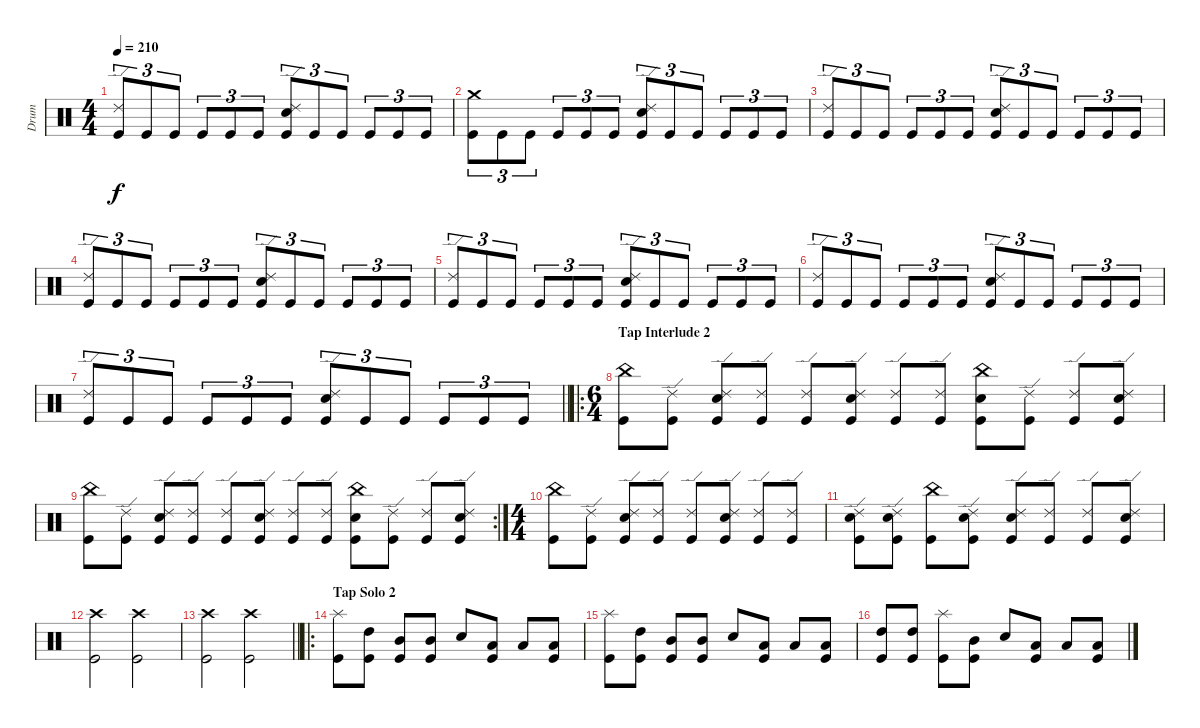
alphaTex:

\track ("Drum" "Drum") {instrument percussion}
\staff {score}
\articulation defaults
\ts (4 4)
\tempo 210
\clef neutral
\ks c
("Ride (edge) 2" "Kick (hit)").8{tu (3 2) dy f} "Kick (hit)".8{tu (3 2)} "Kick (hit)".8{tu (3 2)} "Kick (hit)".8{tu (3 2)} "Kick (hit)".8{tu (3 2)} "Kick (hit)".8{tu (3 2)} ("Ride (edge) 2" "Snare (hit) 2" "Kick (hit)").8{tu (3 2)} "Kick (hit)".8{tu (3 2)} "Kick (hit)".8{tu (3 2)} "Kick (hit)".8{tu (3 2)} "Kick (hit)".8{tu (3 2)} "Kick (hit)".8{tu (3 2)} |
("Crash medium (hit)" "Kick (hit)").8{tu (3 2)} "Kick (hit)".8{tu (3 2)} "Kick (hit)".8{tu (3 2)} "Kick (hit)".8{tu (3 2)} "Kick (hit)".8{tu (3 2)} "Kick (hit)".8{tu (3 2)} ("Ride (edge) 2" "Snare (hit) 2" "Kick (hit)").8{tu (3 2)} "Kick (hit)".8{tu (3 2)} "Kick (hit)".8{tu (3 2)} "Kick (hit)".8{tu (3 2)} "Kick (hit)".8{tu (3 2)} "Kick (hit)".8{tu (3 2)} |
("Ride (edge) 2" "Kick (hit)").8{tu (3 2)} "Kick (hit)".8{tu (3 2)} "Kick (hit)".8{tu (3 2)} "Kick (hit)".8{tu (3 2)} "Kick (hit)".8{tu (3 2)} "Kick (hit)".8{tu (3 2)} ("Ride (edge) 2" "Snare (hit) 2" "Kick (hit)").8{tu (3 2)} "Kick (hit)".8{tu (3 2)} "Kick (hit)".8{tu (3 2)} "Kick (hit)".8{tu (3 2)} "Kick (hit)".8{tu (3 2)} "Kick (hit)".8{tu (3 2)} |
("Ride (edge) 2" "Kick (hit)").8{tu (3 2)} "Kick (hit)".8{tu (3 2)} "Kick (hit)".8{tu (3 2)} "Kick (hit)".8{tu (3 2)} "Kick (hit)".8{tu (3 2)} "Kick (hit)".8{tu (3 2)} ("Ride (edge) 2" "Snare (hit) 2" "Kick (hit)").8{tu (3 2)} "Kick (hit)".8{tu (3 2)} "Kick (hit)".8{tu (3 2)} "Kick (hit)".8{tu (3 2)} "Kick (hit)".8{tu (3 2)} "Kick (hit)".8{tu (3 2)} |
("Ride (edge) 2" "Kick (hit)").8{tu (3 2)} "Kick (hit)".8{tu (3 2)} "Kick (hit)".8{tu (3 2)} "Kick (hit)".8{tu (3 2)} "Kick (hit)".8{tu (3 2)} "Kick (hit)".8{tu (3 2)} ("Ride (edge) 2" "Snare (hit) 2" "Kick (hit)").8{tu (3 2)} "Kick (hit)".8{tu (3 2)} "Kick (hit)".8{tu (3 2)} "Kick (hit)".8{tu (3 2)} "Kick (hit)".8{tu (3 2)} "Kick (hit)".8{tu (3 2)} |
("Ride (edge) 2" "Kick (hit)").8{tu (3 2)} "Kick (hit)".8{tu (3 2)} "Kick (hit)".8{tu (3 2)} "Kick (hit)".8{tu (3 2)} "Kick (hit)".8{tu (3 2)} "Kick (hit)".8{tu (3 2)} ("Ride (edge) 2" "Snare (hit) 2" "Kick (hit)").8{tu (3 2)} "Kick (hit)".8{tu (3 2)} "Kick (hit)".8{tu (3 2)} "Kick (hit)".8{tu (3 2)} "Kick (hit)".8{tu (3 2)} "Kick (hit)".8{tu (3 2)} |
\barLineRight lightlight
("Ride (edge) 2" "Kick (hit)").8{tu (3 2)} "Kick (hit)".8{tu (3 2)} "Kick (hit)".8{tu (3 2)} "Kick (hit)".8{tu (3 2)} "Kick (hit)".8{tu (3 2)} "Kick (hit)".8{tu (3 2)} ("Ride (edge) 2" "Snare (hit) 2" "Kick (hit)").8{tu (3 2)} "Kick (hit)".8{tu (3 2)} "Kick (hit)".8{tu (3 2)} "Kick (hit)".8{tu (3 2)} "Kick (hit)".8{tu (3 2)} "Kick (hit)".8{tu (3 2)} |
\ro
\ts (6 4)
\section ("" "Tap Interlude 2")
("China (hit)" "Kick (hit)").8 ("Ride (edge) 2" "Kick (hit)").8 ("Ride (edge) 2" "Snare (hit) 2" "Kick (hit)").8 ("Ride (edge) 2" "Kick (hit)").8 ("Ride (edge) 2" "Kick (hit)").8 ("Ride (edge) 2" "Snare (hit) 2" "Kick (hit)").8 ("Ride (edge) 2" "Kick (hit)").8 ("Ride (edge) 2" "Kick (hit)").8 ("China (hit)" "Snare (hit) 2" "Kick (hit)").8 ("Ride (edge) 2" "Kick (hit)").8 ("Ride (edge) 2" "Kick (hit)").8 ("Ride (edge) 2" "Snare (hit) 2" "Kick (hit)").8 |
\rc 2
("China (hit)" "Kick (hit)").8 ("Ride (edge) 2" "Kick (hit)").8 ("Ride (edge) 2" "Snare (hit) 2" "Kick (hit)").8 ("Ride (edge) 2" "Kick (hit)").8 ("Ride (edge) 2" "Kick (hit)").8 ("Ride (edge) 2" "Snare (hit) 2" "Kick (hit)").8 ("Ride (edge) 2" "Kick (hit)").8 ("Ride (edge) 2" "Kick (hit)").8 ("China (hit)" "Snare (hit) 2" "Kick (hit)").8 ("Ride (edge) 2" "Kick (hit)").8 ("Ride (edge) 2" "Kick (hit)").8 ("Ride (edge) 2" "Snare (hit) 2" "Kick (hit)").8 |
\ts (4 4)
("China (hit)" "Kick (hit)").8 ("Ride (edge) 2" "Kick (hit)").8 ("Ride (edge) 2" "Snare (hit) 2" "Kick (hit)").8 ("Ride (edge) 2" "Kick (hit)").8 ("Ride (edge) 2" "Kick (hit)").8 ("Ride (edge) 2" "Snare (hit) 2" "Kick (hit)").8 ("Ride (edge) 2" "Kick (hit)").8 ("Ride (edge) 2" "Kick (hit)").8 |
("Ride (edge) 2" "Snare (hit) 2" "Kick (hit)").8 ("Ride (edge) 2" "Snare (hit) 2" "Kick (hit)").8 ("China (hit)" "Kick (hit)").8 ("Ride (edge) 2" "Snare (hit) 2" "Kick (hit)").8 ("Ride (edge) 2" "Snare (hit) 2" "Kick (hit)").8 ("Ride (edge) 2" "Kick (hit)").8 ("Ride (edge) 2" "Kick (hit)").8 ("Ride (edge) 2" "Snare (hit) 2" "Kick (hit)").8 |
("Crash high (hit)" "Kick (hit)").2 ("Crash high (hit)" "Kick (hit)").2 |
\barLineRight lightlight
("Crash high (hit)" "Kick (hit)").2 ("Crash high (hit)" "Kick (hit)").2 |
\ro
\section ("" "Tap Solo 2")
("Splash (hit)" "Kick (hit)").8 ("High Tom (hit)" "Kick (hit)").8 ("Mid Tom (hit)" "Kick (hit)").8 ("Mid Tom (hit)" "Kick (hit)").8 "Snare (hit) 2".8 ("Low Tom (hit)" "Kick (hit)").8 "Low Tom (hit)".8 ("Low Tom (hit)" "Kick (hit)").8 |
("Splash (hit)" "Kick (hit)").8 ("High Tom (hit)" "Kick (hit)").8 ("Mid Tom (hit)" "Kick (hit)").8 ("Mid Tom (hit)" "Kick (hit)").8 "Snare (hit) 2".8 ("Low Tom (hit)" "Kick (hit)").8 "Low Tom (hit)".8 ("Low Tom (hit)" "Kick (hit)").8 |
("High Tom (hit)" "Kick (hit)").8 ("High Tom (hit)" "Kick (hit)").8 ("Splash (hit)" "Kick (hit)").8 ("Mid Tom (hit)" "Kick (hit)").8 "Snare (hit) 2".8 ("Low Tom (hit)" "Kick (hit)").8 "Low Tom (hit)".8 ("Low Tom (hit)" "Kick (hit)").8
